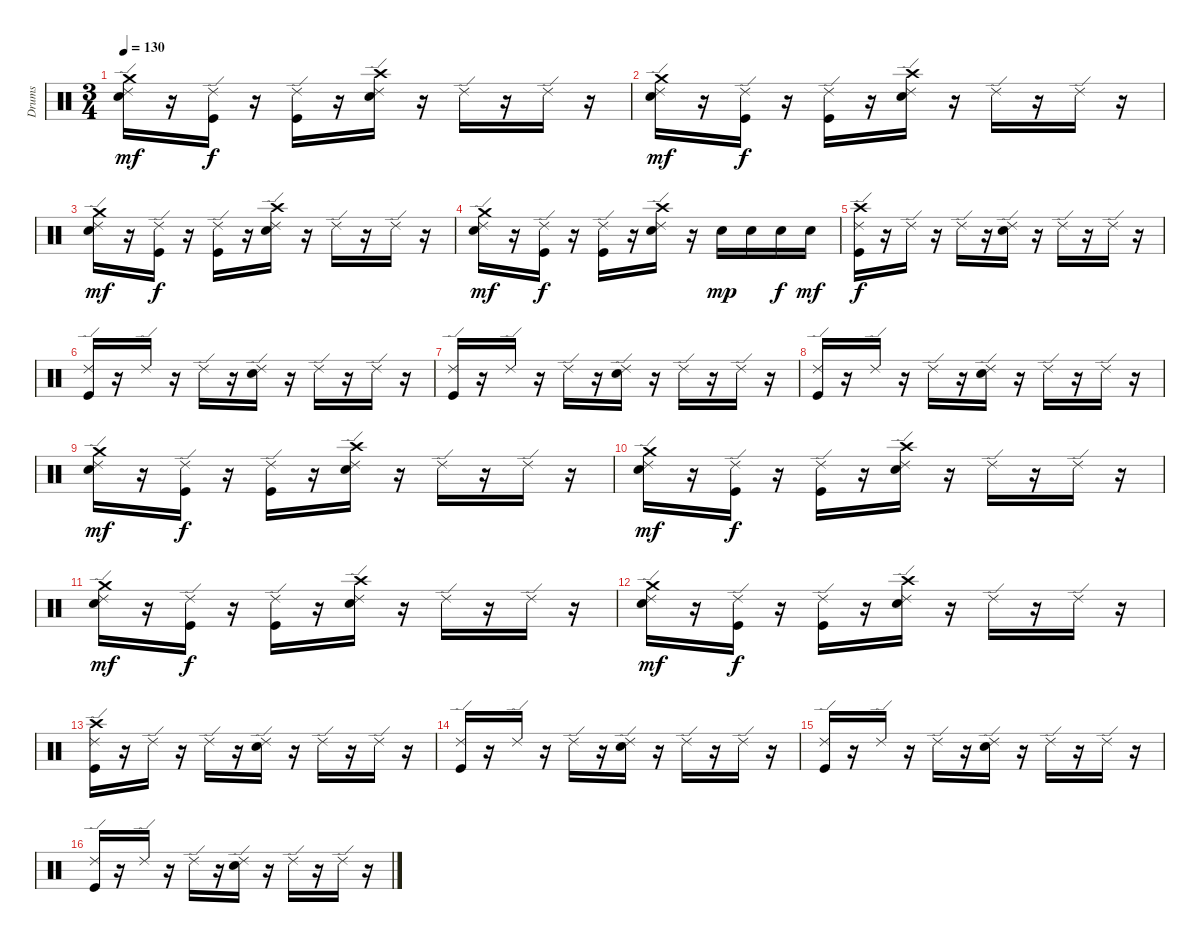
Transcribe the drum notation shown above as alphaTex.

\track ("Drums" "Drums") {instrument percussion}
\staff {score}
\articulation defaults
\ts (3 4)
\tempo 130
\clef neutral
\ks c
("Crash medium (hit)" "Ride (edge) 2" "Electric Snare (hit)").16{dy mf} r.16 ("Ride (edge) 2" "Kick (hit)").16{dy f} r.16 ("Ride (edge) 2" "Kick (hit)").16 r.16 ("Crash high (hit)" "Ride (edge) 2" "Electric Snare (hit)").16 r.16 "Ride (edge) 2".16 r.16 "Ride (edge) 2".16 r.16 |
("Crash medium (hit)" "Ride (edge) 2" "Electric Snare (hit)").16{dy mf} r.16 ("Ride (edge) 2" "Kick (hit)").16{dy f} r.16 ("Ride (edge) 2" "Kick (hit)").16 r.16 ("Crash high (hit)" "Ride (edge) 2" "Electric Snare (hit)").16 r.16 "Ride (edge) 2".16 r.16 "Ride (edge) 2".16 r.16 |
("Crash medium (hit)" "Ride (edge) 2" "Electric Snare (hit)").16{dy mf} r.16 ("Ride (edge) 2" "Kick (hit)").16{dy f} r.16 ("Ride (edge) 2" "Kick (hit)").16 r.16 ("Crash high (hit)" "Ride (edge) 2" "Electric Snare (hit)").16 r.16 "Ride (edge) 2".16 r.16 "Ride (edge) 2".16 r.16 |
("Crash medium (hit)" "Ride (edge) 2" "Electric Snare (hit)").16{dy mf} r.16 ("Ride (edge) 2" "Kick (hit)").16{dy f} r.16 ("Ride (edge) 2" "Kick (hit)").16 r.16 ("Crash high (hit)" "Ride (edge) 2" "Electric Snare (hit)").16 r.16 "Electric Snare (hit)".16{dy mp} "Electric Snare (hit)".16 "Electric Snare (hit)".16{dy f} "Electric Snare (hit)".16{dy mf} |
("Crash high (hit)" "Ride (edge) 2" "Kick (hit)").16{dy f} r.16 "Ride (edge) 2".16 r.16 "Ride (edge) 2".16 r.16 ("Ride (edge) 2" "Electric Snare (hit)").16 r.16 "Ride (edge) 2".16 r.16 "Ride (edge) 2".16 r.16 |
("Ride (edge) 2" "Kick (hit)").16 r.16 "Ride (edge) 2".16 r.16 "Ride (edge) 2".16 r.16 ("Ride (edge) 2" "Electric Snare (hit)").16 r.16 "Ride (edge) 2".16 r.16 "Ride (edge) 2".16 r.16 |
("Ride (edge) 2" "Kick (hit)").16 r.16 "Ride (edge) 2".16 r.16 "Ride (edge) 2".16 r.16 ("Ride (edge) 2" "Electric Snare (hit)").16 r.16 "Ride (edge) 2".16 r.16 "Ride (edge) 2".16 r.16 |
("Ride (edge) 2" "Kick (hit)").16 r.16 "Ride (edge) 2".16 r.16 "Ride (edge) 2".16 r.16 ("Ride (edge) 2" "Electric Snare (hit)").16 r.16 "Ride (edge) 2".16 r.16 "Ride (edge) 2".16 r.16 |
("Crash medium (hit)" "Ride (edge) 2" "Electric Snare (hit)").16{dy mf} r.16 ("Ride (edge) 2" "Kick (hit)").16{dy f} r.16 ("Ride (edge) 2" "Kick (hit)").16 r.16 ("Crash high (hit)" "Ride (edge) 2" "Electric Snare (hit)").16 r.16 "Ride (edge) 2".16 r.16 "Ride (edge) 2".16 r.16 |
("Crash medium (hit)" "Ride (edge) 2" "Electric Snare (hit)").16{dy mf} r.16 ("Ride (edge) 2" "Kick (hit)").16{dy f} r.16 ("Ride (edge) 2" "Kick (hit)").16 r.16 ("Crash high (hit)" "Ride (edge) 2" "Electric Snare (hit)").16 r.16 "Ride (edge) 2".16 r.16 "Ride (edge) 2".16 r.16 |
("Crash medium (hit)" "Ride (edge) 2" "Electric Snare (hit)").16{dy mf} r.16 ("Ride (edge) 2" "Kick (hit)").16{dy f} r.16 ("Ride (edge) 2" "Kick (hit)").16 r.16 ("Crash high (hit)" "Ride (edge) 2" "Electric Snare (hit)").16 r.16 "Ride (edge) 2".16 r.16 "Ride (edge) 2".16 r.16 |
("Crash medium (hit)" "Ride (edge) 2" "Electric Snare (hit)").16{dy mf} r.16 ("Ride (edge) 2" "Kick (hit)").16{dy f} r.16 ("Ride (edge) 2" "Kick (hit)").16 r.16 ("Crash high (hit)" "Ride (edge) 2" "Electric Snare (hit)").16 r.16 "Ride (edge) 2".16 r.16 "Ride (edge) 2".16 r.16 |
("Crash high (hit)" "Ride (edge) 2" "Kick (hit)").16 r.16 "Ride (edge) 2".16 r.16 "Ride (edge) 2".16 r.16 ("Ride (edge) 2" "Electric Snare (hit)").16 r.16 "Ride (edge) 2".16 r.16 "Ride (edge) 2".16 r.16 |
("Ride (edge) 2" "Kick (hit)").16 r.16 "Ride (edge) 2".16 r.16 "Ride (edge) 2".16 r.16 ("Ride (edge) 2" "Electric Snare (hit)").16 r.16 "Ride (edge) 2".16 r.16 "Ride (edge) 2".16 r.16 |
("Ride (edge) 2" "Kick (hit)").16 r.16 "Ride (edge) 2".16 r.16 "Ride (edge) 2".16 r.16 ("Ride (edge) 2" "Electric Snare (hit)").16 r.16 "Ride (edge) 2".16 r.16 "Ride (edge) 2".16 r.16 |
("Ride (edge) 2" "Kick (hit)").16 r.16 "Ride (edge) 2".16 r.16 "Ride (edge) 2".16 r.16 ("Ride (edge) 2" "Electric Snare (hit)").16 r.16 "Ride (edge) 2".16 r.16 "Ride (edge) 2".16 r.16
